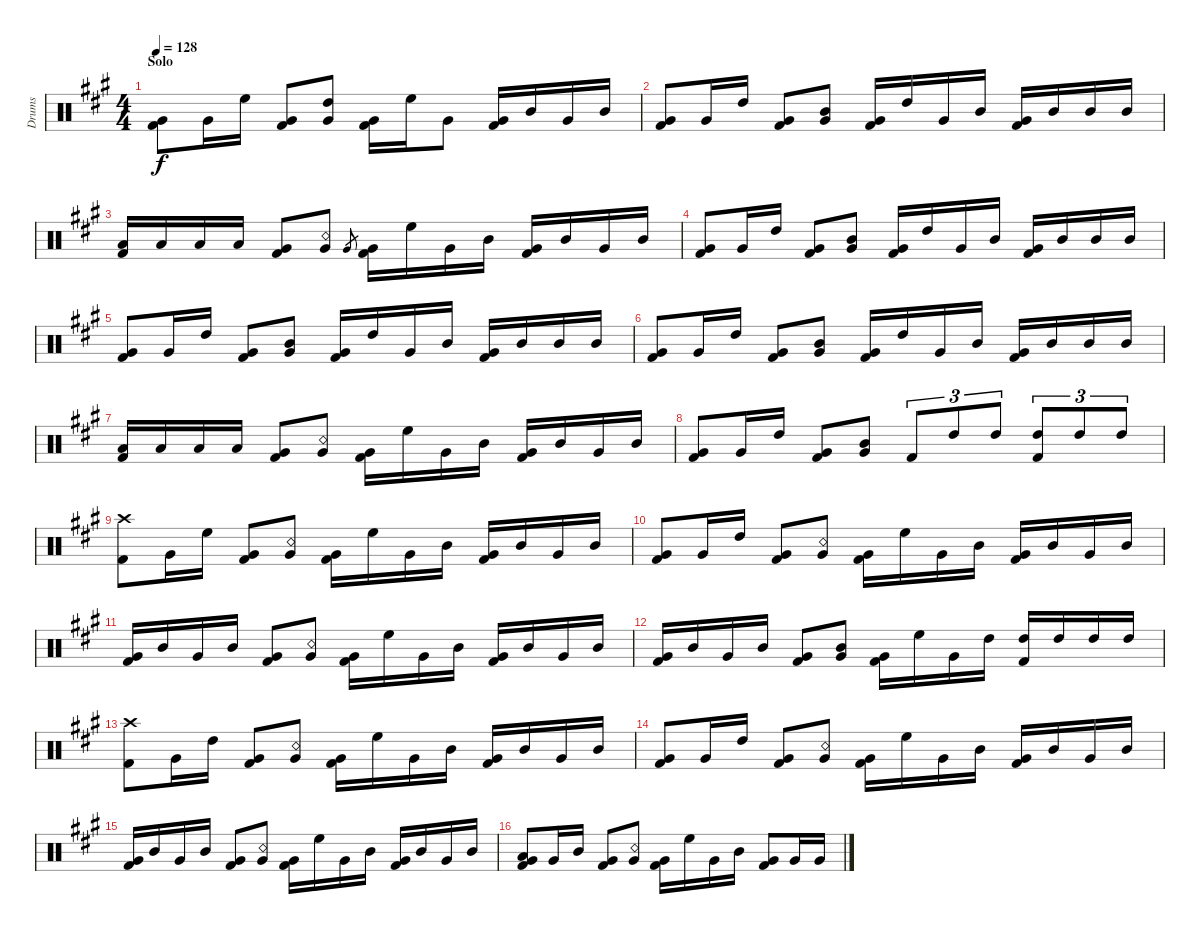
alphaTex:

\defaultSystemsLayout 4
\bracketExtendMode groupsimilarinstruments
\otherSystemsTrackNameOrientation horizontal
\track ("Drumkit" "Drums") {multiBarRest instrument percussion}
\staff {score}
\articulation defaults
\ts (4 4)
\section ("" "Solo")
\tempo 128
\clef neutral
\ks a
("Kick (hit) 2"{acc forcenatural} "Very Low Tom (hit)"{acc forcenatural}).8{dy f} "Very Low Tom (hit)"{acc forcenatural}.16 "High Floor Tom (hit)"{acc forcenatural}.16 ("Very Low Tom (hit)"{acc forcenatural} "Kick (hit) 2"{acc forcenatural}).8 ("Very Low Tom (hit)"{acc forcenatural} "High Tom (hit)"{acc forcenatural}).8 ("Very Low Tom (hit)"{acc forcenatural} "Kick (hit) 2"{acc forcenatural}).16 "High Floor Tom (hit)"{acc forcenatural}.16 "Very Low Tom (hit)"{acc forcenatural}.8 ("Very Low Tom (hit)"{acc forcenatural} "Kick (hit) 2"{acc forcenatural}).16 "Mid Tom (hit)"{acc forcenatural}.16 "Very Low Tom (hit)"{acc forcenatural}.16 "Mid Tom (hit)"{acc forcenatural}.16 |
("Kick (hit) 2"{acc forcenatural} "Very Low Tom (hit)"{acc forcenatural}).8 "Very Low Tom (hit)"{acc forcenatural}.16 "High Tom (hit)"{acc forcenatural}.16 ("Very Low Tom (hit)"{acc forcenatural} "Kick (hit) 2"{acc forcenatural}).8 ("Very Low Tom (hit)"{acc forcenatural} "Mid Tom (hit)"{acc forcenatural}).8 ("Very Low Tom (hit)"{acc forcenatural} "Kick (hit) 2"{acc forcenatural}).16 "High Tom (hit)"{acc forcenatural}.16 "Very Low Tom (hit)"{acc forcenatural}.16 "Mid Tom (hit)"{acc forcenatural}.16 ("Very Low Tom (hit)"{acc forcenatural} "Kick (hit) 2"{acc forcenatural}).16 "Mid Tom (hit)"{acc forcenatural}.16 "Mid Tom (hit)"{acc forcenatural}.16 "Mid Tom (hit)"{acc forcenatural}.16 |
("Low Tom (hit)"{acc forcenatural} "Kick (hit) 2"{acc forcenatural}).16 "Low Tom (hit)"{acc forcenatural}.16 "Low Tom (hit)"{acc forcenatural}.16 "Low Tom (hit)"{acc forcenatural}.16 ("Very Low Tom (hit)"{acc forcenatural} "Kick (hit) 2"{acc forcenatural}).8 ("Snare (rim shot)"{acc forcenatural} "Very Low Tom (hit)"{acc forcenatural}).8 "Very Low Tom (hit)"{acc forcenatural}.8{gr} ("Very Low Tom (hit)"{acc forcenatural} "Kick (hit) 2"{acc forcenatural}).16 "High Floor Tom (hit)"{acc forcenatural}.16 "Very Low Tom (hit)"{acc forcenatural}.16 "Mid Tom (hit)"{acc forcenatural}.16 ("Very Low Tom (hit)"{acc forcenatural} "Kick (hit) 2"{acc forcenatural}).16 "Mid Tom (hit)"{acc forcenatural}.16 "Very Low Tom (hit)"{acc forcenatural}.16 "Mid Tom (hit)"{acc forcenatural}.16 |
("Kick (hit) 2"{acc forcenatural} "Very Low Tom (hit)"{acc forcenatural}).8 "Very Low Tom (hit)"{acc forcenatural}.16 "High Tom (hit)"{acc forcenatural}.16 ("Very Low Tom (hit)"{acc forcenatural} "Kick (hit) 2"{acc forcenatural}).8 ("Very Low Tom (hit)"{acc forcenatural} "Mid Tom (hit)"{acc forcenatural}).8 ("Very Low Tom (hit)"{acc forcenatural} "Kick (hit) 2"{acc forcenatural}).16 "High Tom (hit)"{acc forcenatural}.16 "Very Low Tom (hit)"{acc forcenatural}.16 "Mid Tom (hit)"{acc forcenatural}.16 ("Very Low Tom (hit)"{acc forcenatural} "Kick (hit) 2"{acc forcenatural}).16 "Mid Tom (hit)"{acc forcenatural}.16 "Mid Tom (hit)"{acc forcenatural}.16 "Mid Tom (hit)"{acc forcenatural}.16 |
("Kick (hit) 2"{acc forcenatural} "Very Low Tom (hit)"{acc forcenatural}).8 "Very Low Tom (hit)"{acc forcenatural}.16 "High Tom (hit)"{acc forcenatural}.16 ("Very Low Tom (hit)"{acc forcenatural} "Kick (hit) 2"{acc forcenatural}).8 ("Very Low Tom (hit)"{acc forcenatural} "Mid Tom (hit)"{acc forcenatural}).8 ("Very Low Tom (hit)"{acc forcenatural} "Kick (hit) 2"{acc forcenatural}).16 "High Tom (hit)"{acc forcenatural}.16 "Very Low Tom (hit)"{acc forcenatural}.16 "Mid Tom (hit)"{acc forcenatural}.16 ("Very Low Tom (hit)"{acc forcenatural} "Kick (hit) 2"{acc forcenatural}).16 "Mid Tom (hit)"{acc forcenatural}.16 "Mid Tom (hit)"{acc forcenatural}.16 "Mid Tom (hit)"{acc forcenatural}.16 |
("Kick (hit) 2"{acc forcenatural} "Very Low Tom (hit)"{acc forcenatural}).8 "Very Low Tom (hit)"{acc forcenatural}.16 "High Tom (hit)"{acc forcenatural}.16 ("Very Low Tom (hit)"{acc forcenatural} "Kick (hit) 2"{acc forcenatural}).8 ("Very Low Tom (hit)"{acc forcenatural} "Mid Tom (hit)"{acc forcenatural}).8 ("Very Low Tom (hit)"{acc forcenatural} "Kick (hit) 2"{acc forcenatural}).16 "High Tom (hit)"{acc forcenatural}.16 "Very Low Tom (hit)"{acc forcenatural}.16 "Mid Tom (hit)"{acc forcenatural}.16 ("Very Low Tom (hit)"{acc forcenatural} "Kick (hit) 2"{acc forcenatural}).16 "Mid Tom (hit)"{acc forcenatural}.16 "Mid Tom (hit)"{acc forcenatural}.16 "Mid Tom (hit)"{acc forcenatural}.16 |
("Low Tom (hit)"{acc forcenatural} "Kick (hit) 2"{acc forcenatural}).16 "Low Tom (hit)"{acc forcenatural}.16 "Low Tom (hit)"{acc forcenatural}.16 "Low Tom (hit)"{acc forcenatural}.16 ("Very Low Tom (hit)"{acc forcenatural} "Kick (hit) 2"{acc forcenatural}).8 ("Snare (rim shot)"{acc forcenatural} "Very Low Tom (hit)"{acc forcenatural}).8 ("Very Low Tom (hit)"{acc forcenatural} "Kick (hit) 2"{acc forcenatural}).16 "High Floor Tom (hit)"{acc forcenatural}.16 "Very Low Tom (hit)"{acc forcenatural}.16 "Mid Tom (hit)"{acc forcenatural}.16 ("Very Low Tom (hit)"{acc forcenatural} "Kick (hit) 2"{acc forcenatural}).16 "Mid Tom (hit)"{acc forcenatural}.16 "Very Low Tom (hit)"{acc forcenatural}.16 "Mid Tom (hit)"{acc forcenatural}.16 |
("Kick (hit) 2"{acc forcenatural} "Very Low Tom (hit)"{acc forcenatural}).8 "Very Low Tom (hit)"{acc forcenatural}.16 "High Tom (hit)"{acc forcenatural}.16 ("Very Low Tom (hit)"{acc forcenatural} "Kick (hit) 2"{acc forcenatural}).8 ("Very Low Tom (hit)"{acc forcenatural} "Mid Tom (hit)"{acc forcenatural}).8 "Kick (hit) 2"{acc forcenatural}.8{tu (3 2)} "High Tom (hit)"{acc forcenatural}.8{tu (3 2)} "High Tom (hit)"{acc forcenatural}.8{tu (3 2)} ("High Tom (hit)"{acc forcenatural} "Kick (hit) 2"{acc forcenatural}).8{tu (3 2)} "High Tom (hit)"{acc forcenatural}.8{tu (3 2)} "High Tom (hit)"{acc forcenatural}.8{tu (3 2)} |
("Kick (hit) 2"{acc forcenatural} "Crash high (hit)"{acc forcenatural}).8 "Very Low Tom (hit)"{acc forcenatural}.16 "High Floor Tom (hit)"{acc forcenatural}.16 ("Very Low Tom (hit)"{acc forcenatural} "Kick (hit) 2"{acc forcenatural}).8 ("Snare (rim shot)"{acc forcenatural} "Very Low Tom (hit)"{acc forcenatural}).8 ("Very Low Tom (hit)"{acc forcenatural} "Kick (hit) 2"{acc forcenatural}).16 "High Floor Tom (hit)"{acc forcenatural}.16 "Very Low Tom (hit)"{acc forcenatural}.16 "Mid Tom (hit)"{acc forcenatural}.16 ("Very Low Tom (hit)"{acc forcenatural} "Kick (hit) 2"{acc forcenatural}).16 "Mid Tom (hit)"{acc forcenatural}.16 "Very Low Tom (hit)"{acc forcenatural}.16 "Mid Tom (hit)"{acc forcenatural}.16 |
("Very Low Tom (hit)"{acc forcenatural} "Kick (hit) 2"{acc forcenatural}).8 "Very Low Tom (hit)"{acc forcenatural}.16 "High Tom (hit)"{acc forcenatural}.16 ("Very Low Tom (hit)"{acc forcenatural} "Kick (hit) 2"{acc forcenatural}).8 ("Snare (rim shot)"{acc forcenatural} "Very Low Tom (hit)"{acc forcenatural}).8 ("Very Low Tom (hit)"{acc forcenatural} "Kick (hit) 2"{acc forcenatural}).16 "High Floor Tom (hit)"{acc forcenatural}.16 "Very Low Tom (hit)"{acc forcenatural}.16 "Mid Tom (hit)"{acc forcenatural}.16 ("Very Low Tom (hit)"{acc forcenatural} "Kick (hit) 2"{acc forcenatural}).16 "Mid Tom (hit)"{acc forcenatural}.16 "Very Low Tom (hit)"{acc forcenatural}.16 "Mid Tom (hit)"{acc forcenatural}.16 |
("Very Low Tom (hit)"{acc forcenatural} "Kick (hit) 2"{acc forcenatural}).16 "Mid Tom (hit)"{acc forcenatural}.16 "Very Low Tom (hit)"{acc forcenatural}.16 "Mid Tom (hit)"{acc forcenatural}.16 ("Very Low Tom (hit)"{acc forcenatural} "Kick (hit) 2"{acc forcenatural}).8 ("Snare (rim shot)"{acc forcenatural} "Very Low Tom (hit)"{acc forcenatural}).8 ("Very Low Tom (hit)"{acc forcenatural} "Kick (hit) 2"{acc forcenatural}).16 "High Floor Tom (hit)"{acc forcenatural}.16 "Very Low Tom (hit)"{acc forcenatural}.16 "Mid Tom (hit)"{acc forcenatural}.16 ("Very Low Tom (hit)"{acc forcenatural} "Kick (hit) 2"{acc forcenatural}).16 "Mid Tom (hit)"{acc forcenatural}.16 "Very Low Tom (hit)"{acc forcenatural}.16 "Mid Tom (hit)"{acc forcenatural}.16 |
("Very Low Tom (hit)"{acc forcenatural} "Kick (hit) 2"{acc forcenatural}).16 "Mid Tom (hit)"{acc forcenatural}.16 "Very Low Tom (hit)"{acc forcenatural}.16 "Mid Tom (hit)"{acc forcenatural}.16 ("Very Low Tom (hit)"{acc forcenatural} "Kick (hit) 2"{acc forcenatural}).8 ("Very Low Tom (hit)"{acc forcenatural} "Mid Tom (hit)"{acc forcenatural}).8 ("Very Low Tom (hit)"{acc forcenatural} "Kick (hit) 2"{acc forcenatural}).16 "High Floor Tom (hit)"{acc forcenatural}.16 "Very Low Tom (hit)"{acc forcenatural}.16 "High Tom (hit)"{acc forcenatural}.16 ("Kick (hit) 2"{acc forcenatural} "High Tom (hit)"{acc forcenatural}).16 "High Tom (hit)"{acc forcenatural}.16 "High Tom (hit)"{acc forcenatural}.16 "High Tom (hit)"{acc forcenatural}.16 |
("Kick (hit) 2"{acc forcenatural} "Crash high (hit)"{acc forcenatural}).8 "Very Low Tom (hit)"{acc forcenatural}.16 "High Tom (hit)"{acc forcenatural}.16 ("Very Low Tom (hit)"{acc forcenatural} "Kick (hit) 2"{acc forcenatural}).8 ("Snare (rim shot)"{acc forcenatural} "Very Low Tom (hit)"{acc forcenatural}).8 ("Very Low Tom (hit)"{acc forcenatural} "Kick (hit) 2"{acc forcenatural}).16 "High Floor Tom (hit)"{acc forcenatural}.16 "Very Low Tom (hit)"{acc forcenatural}.16 "Mid Tom (hit)"{acc forcenatural}.16 ("Very Low Tom (hit)"{acc forcenatural} "Kick (hit) 2"{acc forcenatural}).16 "Mid Tom (hit)"{acc forcenatural}.16 "Very Low Tom (hit)"{acc forcenatural}.16 "Mid Tom (hit)"{acc forcenatural}.16 |
("Very Low Tom (hit)"{acc forcenatural} "Kick (hit) 2"{acc forcenatural}).8 "Very Low Tom (hit)"{acc forcenatural}.16 "High Tom (hit)"{acc forcenatural}.16 ("Very Low Tom (hit)"{acc forcenatural} "Kick (hit) 2"{acc forcenatural}).8 ("Snare (rim shot)"{acc forcenatural} "Very Low Tom (hit)"{acc forcenatural}).8 ("Very Low Tom (hit)"{acc forcenatural} "Kick (hit) 2"{acc forcenatural}).16 "High Floor Tom (hit)"{acc forcenatural}.16 "Very Low Tom (hit)"{acc forcenatural}.16 "Mid Tom (hit)"{acc forcenatural}.16 ("Very Low Tom (hit)"{acc forcenatural} "Kick (hit) 2"{acc forcenatural}).16 "Mid Tom (hit)"{acc forcenatural}.16 "Very Low Tom (hit)"{acc forcenatural}.16 "Mid Tom (hit)"{acc forcenatural}.16 |
("Very Low Tom (hit)"{acc forcenatural} "Kick (hit) 2"{acc forcenatural}).16 "Mid Tom (hit)"{acc forcenatural}.16 "Very Low Tom (hit)"{acc forcenatural}.16 "Mid Tom (hit)"{acc forcenatural}.16 ("Very Low Tom (hit)"{acc forcenatural} "Kick (hit) 2"{acc forcenatural}).8 ("Snare (rim shot)"{acc forcenatural} "Very Low Tom (hit)"{acc forcenatural}).8 ("Very Low Tom (hit)"{acc forcenatural} "Kick (hit) 2"{acc forcenatural}).16 "High Floor Tom (hit)"{acc forcenatural}.16 "Very Low Tom (hit)"{acc forcenatural}.16 "Mid Tom (hit)"{acc forcenatural}.16 ("Very Low Tom (hit)"{acc forcenatural} "Kick (hit) 2"{acc forcenatural}).16 "Mid Tom (hit)"{acc forcenatural}.16 "Very Low Tom (hit)"{acc forcenatural}.16 "Mid Tom (hit)"{acc forcenatural}.16 |
("Very Low Tom (hit)"{acc forcenatural} "Kick (hit) 2"{acc forcenatural} "Low Tom (hit)"{acc forcenatural}).8 "Very Low Tom (hit)"{acc forcenatural}.16 "Mid Tom (hit)"{acc forcenatural}.16 ("Very Low Tom (hit)"{acc forcenatural} "Kick (hit) 2"{acc forcenatural}).8 ("Very Low Tom (hit)"{acc forcenatural} "Snare (rim shot)"{acc forcenatural}).8 ("Very Low Tom (hit)"{acc forcenatural} "Kick (hit) 2"{acc forcenatural}).16 "High Floor Tom (hit)"{acc forcenatural}.16 "Very Low Tom (hit)"{acc forcenatural}.16 "Mid Tom (hit)"{acc forcenatural}.16 ("Kick (hit) 2"{acc forcenatural} "Very Low Tom (hit)"{acc forcenatural}).8 "Very Low Tom (hit)"{acc forcenatural}.16 "Very Low Tom (hit)"{acc forcenatural}.16
